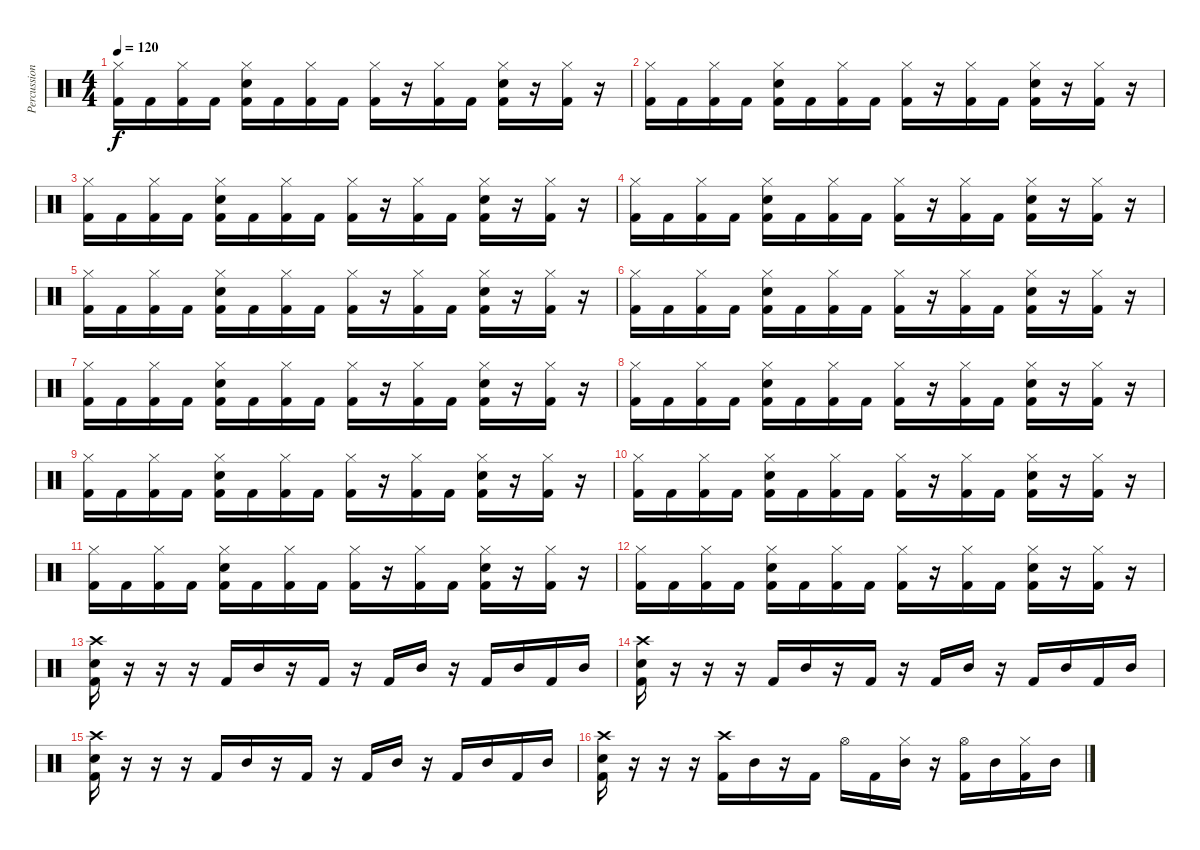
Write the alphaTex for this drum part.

\track ("Percussions" "Percussion") {instrument percussion}
\staff {score}
\articulation defaults
\ts (4 4)
\tempo 120
\clef neutral
\ks c
("Hi-Hat (closed)" "Kick (hit) 2").16{dy f} "Kick (hit) 2".16 ("Hi-Hat (closed)" "Kick (hit) 2").16 "Kick (hit) 2".16 ("Hi-Hat (closed)" "Kick (hit) 2" "Snare (hit) 2").16 "Kick (hit) 2".16 ("Hi-Hat (closed)" "Kick (hit) 2").16 "Kick (hit) 2".16 ("Hi-Hat (closed)" "Kick (hit) 2").16 r.16 ("Hi-Hat (closed)" "Kick (hit) 2").16 "Kick (hit) 2".16 ("Hi-Hat (closed)" "Kick (hit) 2" "Snare (hit) 2").16 r.16 ("Hi-Hat (closed)" "Kick (hit) 2").16 r.16 |
("Hi-Hat (closed)" "Kick (hit) 2").16 "Kick (hit) 2".16 ("Hi-Hat (closed)" "Kick (hit) 2").16 "Kick (hit) 2".16 ("Hi-Hat (closed)" "Kick (hit) 2" "Snare (hit) 2").16 "Kick (hit) 2".16 ("Hi-Hat (closed)" "Kick (hit) 2").16 "Kick (hit) 2".16 ("Hi-Hat (closed)" "Kick (hit) 2").16 r.16 ("Hi-Hat (closed)" "Kick (hit) 2").16 "Kick (hit) 2".16 ("Hi-Hat (closed)" "Kick (hit) 2" "Snare (hit) 2").16 r.16 ("Hi-Hat (closed)" "Kick (hit) 2").16 r.16 |
("Hi-Hat (closed)" "Kick (hit) 2").16 "Kick (hit) 2".16 ("Hi-Hat (closed)" "Kick (hit) 2").16 "Kick (hit) 2".16 ("Hi-Hat (closed)" "Kick (hit) 2" "Snare (hit) 2").16 "Kick (hit) 2".16 ("Hi-Hat (closed)" "Kick (hit) 2").16 "Kick (hit) 2".16 ("Hi-Hat (closed)" "Kick (hit) 2").16 r.16 ("Hi-Hat (closed)" "Kick (hit) 2").16 "Kick (hit) 2".16 ("Hi-Hat (closed)" "Kick (hit) 2" "Snare (hit) 2").16 r.16 ("Hi-Hat (closed)" "Kick (hit) 2").16 r.16 |
("Hi-Hat (closed)" "Kick (hit) 2").16 "Kick (hit) 2".16 ("Hi-Hat (closed)" "Kick (hit) 2").16 "Kick (hit) 2".16 ("Hi-Hat (closed)" "Kick (hit) 2" "Snare (hit) 2").16 "Kick (hit) 2".16 ("Hi-Hat (closed)" "Kick (hit) 2").16 "Kick (hit) 2".16 ("Hi-Hat (closed)" "Kick (hit) 2").16 r.16 ("Hi-Hat (closed)" "Kick (hit) 2").16 "Kick (hit) 2".16 ("Hi-Hat (closed)" "Kick (hit) 2" "Snare (hit) 2").16 r.16 ("Hi-Hat (closed)" "Kick (hit) 2").16 r.16 |
("Hi-Hat (closed)" "Kick (hit) 2").16 "Kick (hit) 2".16 ("Hi-Hat (closed)" "Kick (hit) 2").16 "Kick (hit) 2".16 ("Hi-Hat (closed)" "Kick (hit) 2" "Snare (hit) 2").16 "Kick (hit) 2".16 ("Hi-Hat (closed)" "Kick (hit) 2").16 "Kick (hit) 2".16 ("Hi-Hat (closed)" "Kick (hit) 2").16 r.16 ("Hi-Hat (closed)" "Kick (hit) 2").16 "Kick (hit) 2".16 ("Hi-Hat (closed)" "Kick (hit) 2" "Snare (hit) 2").16 r.16 ("Hi-Hat (closed)" "Kick (hit) 2").16 r.16 |
("Hi-Hat (closed)" "Kick (hit) 2").16 "Kick (hit) 2".16 ("Hi-Hat (closed)" "Kick (hit) 2").16 "Kick (hit) 2".16 ("Hi-Hat (closed)" "Kick (hit) 2" "Snare (hit) 2").16 "Kick (hit) 2".16 ("Hi-Hat (closed)" "Kick (hit) 2").16 "Kick (hit) 2".16 ("Hi-Hat (closed)" "Kick (hit) 2").16 r.16 ("Hi-Hat (closed)" "Kick (hit) 2").16 "Kick (hit) 2".16 ("Hi-Hat (closed)" "Kick (hit) 2" "Snare (hit) 2").16 r.16 ("Hi-Hat (closed)" "Kick (hit) 2").16 r.16 |
("Hi-Hat (closed)" "Kick (hit) 2").16 "Kick (hit) 2".16 ("Hi-Hat (closed)" "Kick (hit) 2").16 "Kick (hit) 2".16 ("Hi-Hat (closed)" "Kick (hit) 2" "Snare (hit) 2").16 "Kick (hit) 2".16 ("Hi-Hat (closed)" "Kick (hit) 2").16 "Kick (hit) 2".16 ("Hi-Hat (closed)" "Kick (hit) 2").16 r.16 ("Hi-Hat (closed)" "Kick (hit) 2").16 "Kick (hit) 2".16 ("Hi-Hat (closed)" "Kick (hit) 2" "Snare (hit) 2").16 r.16 ("Hi-Hat (closed)" "Kick (hit) 2").16 r.16 |
("Hi-Hat (closed)" "Kick (hit) 2").16 "Kick (hit) 2".16 ("Hi-Hat (closed)" "Kick (hit) 2").16 "Kick (hit) 2".16 ("Hi-Hat (closed)" "Kick (hit) 2" "Snare (hit) 2").16 "Kick (hit) 2".16 ("Hi-Hat (closed)" "Kick (hit) 2").16 "Kick (hit) 2".16 ("Hi-Hat (closed)" "Kick (hit) 2").16 r.16 ("Hi-Hat (closed)" "Kick (hit) 2").16 "Kick (hit) 2".16 ("Hi-Hat (closed)" "Kick (hit) 2" "Snare (hit) 2").16 r.16 ("Hi-Hat (closed)" "Kick (hit) 2").16 r.16 |
("Hi-Hat (closed)" "Kick (hit) 2").16 "Kick (hit) 2".16 ("Hi-Hat (closed)" "Kick (hit) 2").16 "Kick (hit) 2".16 ("Hi-Hat (closed)" "Kick (hit) 2" "Snare (hit) 2").16 "Kick (hit) 2".16 ("Hi-Hat (closed)" "Kick (hit) 2").16 "Kick (hit) 2".16 ("Hi-Hat (closed)" "Kick (hit) 2").16 r.16 ("Hi-Hat (closed)" "Kick (hit) 2").16 "Kick (hit) 2".16 ("Hi-Hat (closed)" "Kick (hit) 2" "Snare (hit) 2").16 r.16 ("Hi-Hat (closed)" "Kick (hit) 2").16 r.16 |
("Hi-Hat (closed)" "Kick (hit) 2").16 "Kick (hit) 2".16 ("Hi-Hat (closed)" "Kick (hit) 2").16 "Kick (hit) 2".16 ("Hi-Hat (closed)" "Kick (hit) 2" "Snare (hit) 2").16 "Kick (hit) 2".16 ("Hi-Hat (closed)" "Kick (hit) 2").16 "Kick (hit) 2".16 ("Hi-Hat (closed)" "Kick (hit) 2").16 r.16 ("Hi-Hat (closed)" "Kick (hit) 2").16 "Kick (hit) 2".16 ("Hi-Hat (closed)" "Kick (hit) 2" "Snare (hit) 2").16 r.16 ("Hi-Hat (closed)" "Kick (hit) 2").16 r.16 |
("Hi-Hat (closed)" "Kick (hit) 2").16 "Kick (hit) 2".16 ("Hi-Hat (closed)" "Kick (hit) 2").16 "Kick (hit) 2".16 ("Hi-Hat (closed)" "Kick (hit) 2" "Snare (hit) 2").16 "Kick (hit) 2".16 ("Hi-Hat (closed)" "Kick (hit) 2").16 "Kick (hit) 2".16 ("Hi-Hat (closed)" "Kick (hit) 2").16 r.16 ("Hi-Hat (closed)" "Kick (hit) 2").16 "Kick (hit) 2".16 ("Hi-Hat (closed)" "Kick (hit) 2" "Snare (hit) 2").16 r.16 ("Hi-Hat (closed)" "Kick (hit) 2").16 r.16 |
("Hi-Hat (closed)" "Kick (hit) 2").16 "Kick (hit) 2".16 ("Hi-Hat (closed)" "Kick (hit) 2").16 "Kick (hit) 2".16 ("Hi-Hat (closed)" "Kick (hit) 2" "Snare (hit) 2").16 "Kick (hit) 2".16 ("Hi-Hat (closed)" "Kick (hit) 2").16 "Kick (hit) 2".16 ("Hi-Hat (closed)" "Kick (hit) 2").16 r.16 ("Hi-Hat (closed)" "Kick (hit) 2").16 "Kick (hit) 2".16 ("Hi-Hat (closed)" "Kick (hit) 2" "Snare (hit) 2").16 r.16 ("Hi-Hat (closed)" "Kick (hit) 2").16 r.16 |
("Crash high (hit)" "Kick (hit) 2" "Snare (hit) 2").16 r.16 r.16 r.16 "Kick (hit) 2".16 "Mid Tom (hit)".16 r.16 "Kick (hit) 2".16 r.16 "Kick (hit) 2".16 "Mid Tom (hit)".16 r.16 "Kick (hit) 2".16 "Mid Tom (hit)".16 "Kick (hit) 2".16 "Mid Tom (hit)".16 |
("Crash high (hit)" "Kick (hit) 2" "Snare (hit) 2").16 r.16 r.16 r.16 "Kick (hit) 2".16 "Mid Tom (hit)".16 r.16 "Kick (hit) 2".16 r.16 "Kick (hit) 2".16 "Mid Tom (hit)".16 r.16 "Kick (hit) 2".16 "Mid Tom (hit)".16 "Kick (hit) 2".16 "Mid Tom (hit)".16 |
("Crash high (hit)" "Kick (hit) 2" "Snare (hit) 2").16 r.16 r.16 r.16 "Kick (hit) 2".16 "Mid Tom (hit)".16 r.16 "Kick (hit) 2".16 r.16 "Kick (hit) 2".16 "Mid Tom (hit)".16 r.16 "Kick (hit) 2".16 "Mid Tom (hit)".16 "Kick (hit) 2".16 "Mid Tom (hit)".16 |
("Crash high (hit)" "Kick (hit) 2" "Snare (hit) 2").16 r.16 r.16 r.16 ("Crash high (hit)" "Kick (hit) 2").16 "Mid Tom (hit)".16 r.16 "Kick (hit) 2".16 "Hi-Hat (open)".16 "Kick (hit) 2".16 ("Hi-Hat (closed)" "Mid Tom (hit)").16 r.16 ("Hi-Hat (open)" "Kick (hit) 2").16 "Mid Tom (hit)".16 ("Hi-Hat (closed)" "Kick (hit) 2").16 "Mid Tom (hit)".16
